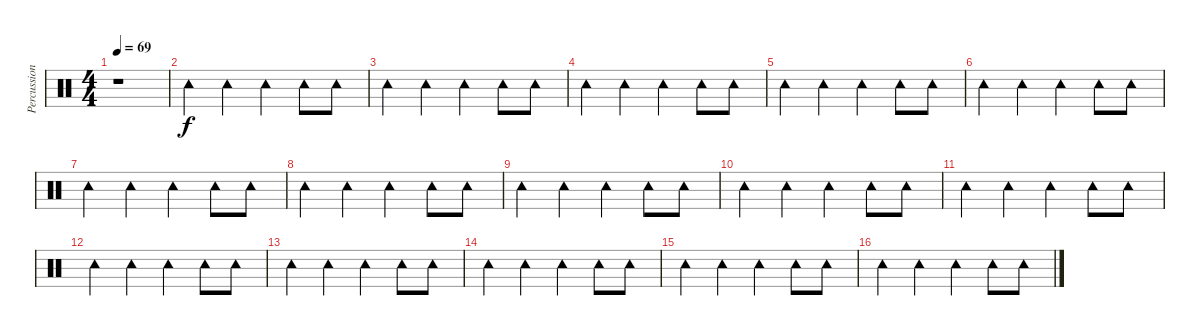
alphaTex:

\track ("Percussion" "Percussion") {instrument percussion}
\staff {score}
\articulation defaults
\ts (4 4)
\tempo 69
\clef neutral
\ks c
r.1{dy f} |
"Tambourine (hit)".4 "Tambourine (hit)".4 "Tambourine (hit)".4 "Tambourine (hit)".8 "Tambourine (hit)".8 |
"Tambourine (hit)".4 "Tambourine (hit)".4 "Tambourine (hit)".4 "Tambourine (hit)".8 "Tambourine (hit)".8 |
"Tambourine (hit)".4 "Tambourine (hit)".4 "Tambourine (hit)".4 "Tambourine (hit)".8 "Tambourine (hit)".8 |
"Tambourine (hit)".4 "Tambourine (hit)".4 "Tambourine (hit)".4 "Tambourine (hit)".8 "Tambourine (hit)".8 |
"Tambourine (hit)".4 "Tambourine (hit)".4 "Tambourine (hit)".4 "Tambourine (hit)".8 "Tambourine (hit)".8 |
"Tambourine (hit)".4 "Tambourine (hit)".4 "Tambourine (hit)".4 "Tambourine (hit)".8 "Tambourine (hit)".8 |
"Tambourine (hit)".4 "Tambourine (hit)".4 "Tambourine (hit)".4 "Tambourine (hit)".8 "Tambourine (hit)".8 |
"Tambourine (hit)".4 "Tambourine (hit)".4 "Tambourine (hit)".4 "Tambourine (hit)".8 "Tambourine (hit)".8 |
"Tambourine (hit)".4 "Tambourine (hit)".4 "Tambourine (hit)".4 "Tambourine (hit)".8 "Tambourine (hit)".8 |
"Tambourine (hit)".4 "Tambourine (hit)".4 "Tambourine (hit)".4 "Tambourine (hit)".8 "Tambourine (hit)".8 |
"Tambourine (hit)".4 "Tambourine (hit)".4 "Tambourine (hit)".4 "Tambourine (hit)".8 "Tambourine (hit)".8 |
"Tambourine (hit)".4 "Tambourine (hit)".4 "Tambourine (hit)".4 "Tambourine (hit)".8 "Tambourine (hit)".8 |
"Tambourine (hit)".4 "Tambourine (hit)".4 "Tambourine (hit)".4 "Tambourine (hit)".8 "Tambourine (hit)".8 |
"Tambourine (hit)".4 "Tambourine (hit)".4 "Tambourine (hit)".4 "Tambourine (hit)".8 "Tambourine (hit)".8 |
"Tambourine (hit)".4 "Tambourine (hit)".4 "Tambourine (hit)".4 "Tambourine (hit)".8 "Tambourine (hit)".8
